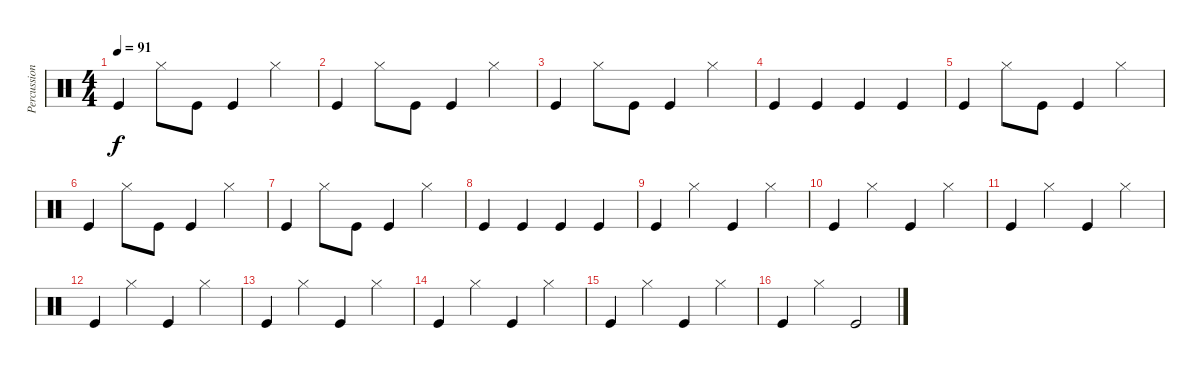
\track ("Percussion" "Percussion") {instrument percussion}
\staff {score}
\articulation defaults
\ts (4 4)
\tempo 91
\clef neutral
\ks c "Kick (hit)".4{dy f} "Hi-Hat (closed)".8 "Kick (hit)".8 "Kick (hit)".4 "Hi-Hat (closed)".4
|
"Kick (hit)".4 "Hi-Hat (closed)".8 "Kick (hit)".8 "Kick (hit)".4 "Hi-Hat (closed)".4 |
"Kick (hit)".4 "Hi-Hat (closed)".8 "Kick (hit)".8 "Kick (hit)".4 "Hi-Hat (closed)".4 |
"Kick (hit)".4 "Kick (hit)".4 "Kick (hit)".4 "Kick (hit)".4 |
"Kick (hit)".4 "Hi-Hat (closed)".8 "Kick (hit)".8 "Kick (hit)".4 "Hi-Hat (closed)".4 |
"Kick (hit)".4 "Hi-Hat (closed)".8 "Kick (hit)".8 "Kick (hit)".4 "Hi-Hat (closed)".4 |
"Kick (hit)".4 "Hi-Hat (closed)".8 "Kick (hit)".8 "Kick (hit)".4 "Hi-Hat (closed)".4 |
"Kick (hit)".4 "Kick (hit)".4 "Kick (hit)".4 "Kick (hit)".4 |
"Kick (hit)".4 "Hi-Hat (closed)".4 "Kick (hit)".4 "Hi-Hat (closed)".4 |
"Kick (hit)".4 "Hi-Hat (closed)".4 "Kick (hit)".4 "Hi-Hat (closed)".4 |
"Kick (hit)".4 "Hi-Hat (closed)".4 "Kick (hit)".4 "Hi-Hat (closed)".4 |
"Kick (hit)".4 "Hi-Hat (closed)".4 "Kick (hit)".4 "Hi-Hat (closed)".4 |
"Kick (hit)".4 "Hi-Hat (closed)".4 "Kick (hit)".4 "Hi-Hat (closed)".4 |
"Kick (hit)".4 "Hi-Hat (closed)".4 "Kick (hit)".4 "Hi-Hat (closed)".4 |
"Kick (hit)".4 "Hi-Hat (closed)".4 "Kick (hit)".4 "Hi-Hat (closed)".4 |
"Kick (hit)".4 "Hi-Hat (closed)".4 "Kick (hit)".2
